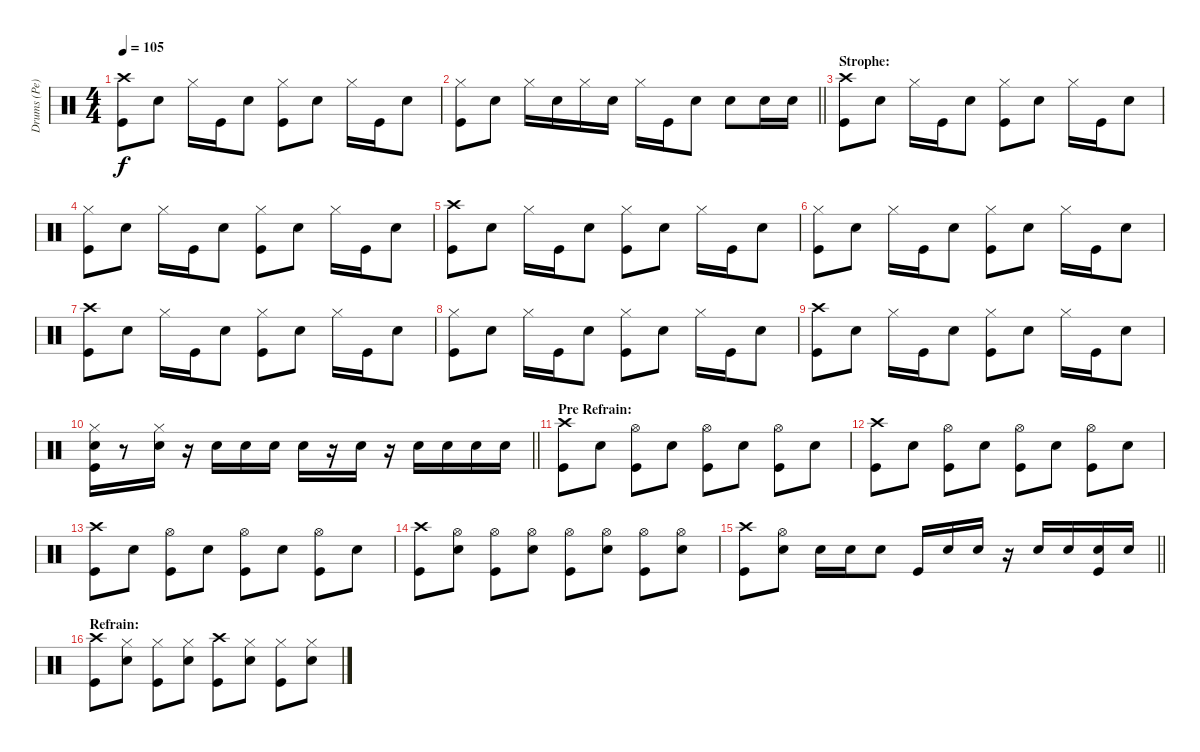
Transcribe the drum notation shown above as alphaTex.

\track ("Drums (Pe)" "Drums (Pe)") {instrument percussion}
\staff {score}
\articulation defaults
\ts (4 4)
\tempo 105
\clef neutral
\ks c
("Crash high (hit)" "Kick (hit)").8{dy f} "Snare (hit) 2".8 "Hi-Hat (closed)".16 "Kick (hit)".16 "Snare (hit) 2".8 ("Hi-Hat (closed)" "Kick (hit)").8 "Snare (hit) 2".8 "Hi-Hat (closed)".16 "Kick (hit)".16 "Snare (hit) 2".8 |
\barLineRight lightlight
("Hi-Hat (closed)" "Kick (hit)").8 "Snare (hit) 2".8 "Hi-Hat (closed)".16 "Snare (hit) 2".16 "Hi-Hat (closed)".16 "Snare (hit) 2".16 "Hi-Hat (closed)".16 "Kick (hit)".16 "Snare (hit) 2".8 "Snare (hit) 2".8 "Snare (hit) 2".16 "Snare (hit) 2".16 |
\section ("" "Strophe:")
("Crash high (hit)" "Kick (hit)").8 "Snare (hit) 2".8 "Hi-Hat (closed)".16 "Kick (hit)".16 "Snare (hit) 2".8 ("Hi-Hat (closed)" "Kick (hit)").8 "Snare (hit) 2".8 "Hi-Hat (closed)".16 "Kick (hit)".16 "Snare (hit) 2".8 |
("Hi-Hat (closed)" "Kick (hit)").8 "Snare (hit) 2".8 "Hi-Hat (closed)".16 "Kick (hit)".16 "Snare (hit) 2".8 ("Hi-Hat (closed)" "Kick (hit)").8 "Snare (hit) 2".8 "Hi-Hat (closed)".16 "Kick (hit)".16 "Snare (hit) 2".8 |
("Crash high (hit)" "Kick (hit)").8 "Snare (hit) 2".8 "Hi-Hat (closed)".16 "Kick (hit)".16 "Snare (hit) 2".8 ("Hi-Hat (closed)" "Kick (hit)").8 "Snare (hit) 2".8 "Hi-Hat (closed)".16 "Kick (hit)".16 "Snare (hit) 2".8 |
("Hi-Hat (closed)" "Kick (hit)").8 "Snare (hit) 2".8 "Hi-Hat (closed)".16 "Kick (hit)".16 "Snare (hit) 2".8 ("Hi-Hat (closed)" "Kick (hit)").8 "Snare (hit) 2".8 "Hi-Hat (closed)".16 "Kick (hit)".16 "Snare (hit) 2".8 |
("Crash high (hit)" "Kick (hit)").8 "Snare (hit) 2".8 "Hi-Hat (closed)".16 "Kick (hit)".16 "Snare (hit) 2".8 ("Hi-Hat (closed)" "Kick (hit)").8 "Snare (hit) 2".8 "Hi-Hat (closed)".16 "Kick (hit)".16 "Snare (hit) 2".8 |
("Hi-Hat (closed)" "Kick (hit)").8 "Snare (hit) 2".8 "Hi-Hat (closed)".16 "Kick (hit)".16 "Snare (hit) 2".8 ("Hi-Hat (closed)" "Kick (hit)").8 "Snare (hit) 2".8 "Hi-Hat (closed)".16 "Kick (hit)".16 "Snare (hit) 2".8 |
("Crash high (hit)" "Kick (hit)").8 "Snare (hit) 2".8 "Hi-Hat (closed)".16 "Kick (hit)".16 "Snare (hit) 2".8 ("Hi-Hat (closed)" "Kick (hit)").8 "Snare (hit) 2".8 "Hi-Hat (closed)".16 "Kick (hit)".16 "Snare (hit) 2".8 |
\barLineRight lightlight
("Hi-Hat (closed)" "Kick (hit)" "Snare (hit) 2").16 r.8 ("Snare (hit) 2" "Hi-Hat (closed)").16 r.16 "Snare (hit) 2".16 "Snare (hit) 2".16 "Snare (hit) 2".16 "Snare (hit) 2".16 r.16 "Snare (hit) 2".16 r.16 "Snare (hit) 2".16 "Snare (hit) 2".16 "Snare (hit) 2".16 "Snare (hit) 2".16 |
\section ("" "Pre Refrain:")
("Crash high (hit)" "Kick (hit)").8 "Snare (hit) 2".8 ("Hi-Hat (open)" "Kick (hit)").8 "Snare (hit) 2".8 ("Hi-Hat (open)" "Kick (hit)").8 "Snare (hit) 2".8 ("Hi-Hat (open)" "Kick (hit)").8 "Snare (hit) 2".8 |
("Crash high (hit)" "Kick (hit)").8 "Snare (hit) 2".8 ("Hi-Hat (open)" "Kick (hit)").8 "Snare (hit) 2".8 ("Hi-Hat (open)" "Kick (hit)").8 "Snare (hit) 2".8 ("Hi-Hat (open)" "Kick (hit)").8 "Snare (hit) 2".8 |
("Crash high (hit)" "Kick (hit)").8 "Snare (hit) 2".8 ("Hi-Hat (open)" "Kick (hit)").8 "Snare (hit) 2".8 ("Hi-Hat (open)" "Kick (hit)").8 "Snare (hit) 2".8 ("Hi-Hat (open)" "Kick (hit)").8 "Snare (hit) 2".8 |
("Crash high (hit)" "Kick (hit)").8 ("Snare (hit) 2" "Hi-Hat (open)").8 ("Hi-Hat (open)" "Kick (hit)").8 ("Snare (hit) 2" "Hi-Hat (open)").8 ("Hi-Hat (open)" "Kick (hit)").8 ("Snare (hit) 2" "Hi-Hat (open)").8 ("Kick (hit)" "Hi-Hat (open)").8 ("Snare (hit) 2" "Hi-Hat (open)").8 |
\barLineRight lightlight
("Crash high (hit)" "Kick (hit)").8 ("Snare (hit) 2" "Hi-Hat (open)").8 "Snare (hit) 2".16 "Snare (hit) 2".16 "Snare (hit) 2".8 "Kick (hit)".16 "Snare (hit) 2".16 "Snare (hit) 2".16 r.16 "Snare (hit) 2".16 "Snare (hit) 2".16 ("Snare (hit) 2" "Kick (hit)").16 "Snare (hit) 2".16 |
\section ("" "Refrain:")
("Crash high (hit)" "Kick (hit)").8 ("Snare (hit) 2" "Hi-Hat (closed)").8 ("Hi-Hat (closed)" "Kick (hit)").8 ("Snare (hit) 2" "Hi-Hat (closed)").8 ("Crash high (hit)" "Kick (hit)").8 ("Snare (hit) 2" "Hi-Hat (closed)").8 ("Hi-Hat (closed)" "Kick (hit)").8 ("Snare (hit) 2" "Hi-Hat (closed)").8
